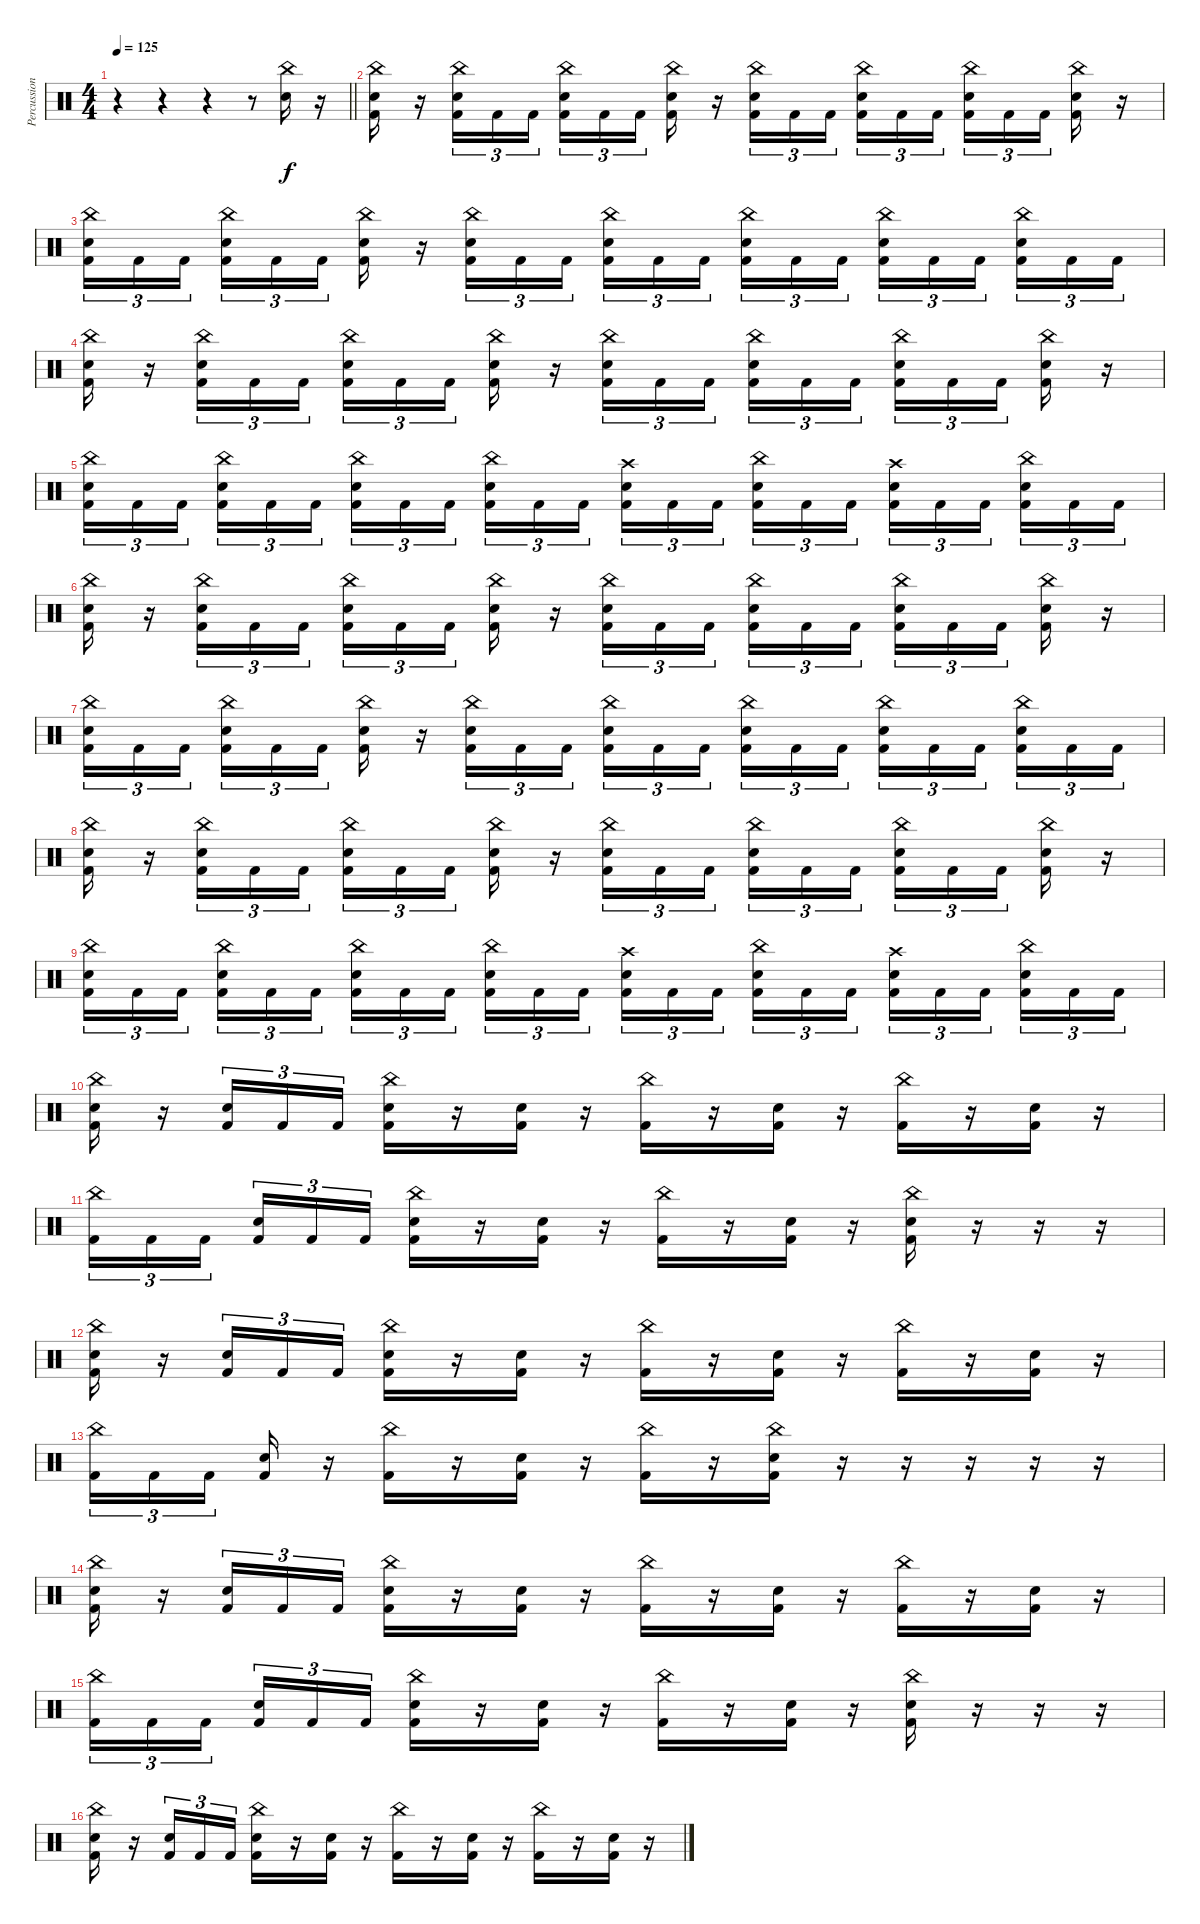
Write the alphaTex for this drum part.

\track ("Percussion" "Percussion") {instrument percussion}
\staff {score}
\articulation defaults
\ts (4 4)
\tempo 125
\clef neutral
\barLineRight lightlight
\ks c
r.4{dy f} r.4 r.4 r.8 ("China (hit)" "Electric Snare (hit)").16 r.16 |
\section ("" "")
("China (hit)" "Electric Snare (hit)" "Kick (hit) 2").16 r.16 ("China (hit)" "Electric Snare (hit)" "Kick (hit) 2").16{tu (3 2)} "Kick (hit) 2".16{tu (3 2)} "Kick (hit) 2".16{tu (3 2)} ("China (hit)" "Electric Snare (hit)" "Kick (hit) 2").16{tu (3 2)} "Kick (hit) 2".16{tu (3 2)} "Kick (hit) 2".16{tu (3 2) beam splitsecondary} ("China (hit)" "Electric Snare (hit)" "Kick (hit) 2").16 r.16 ("China (hit)" "Electric Snare (hit)" "Kick (hit) 2").16{tu (3 2)} "Kick (hit) 2".16{tu (3 2)} "Kick (hit) 2".16{tu (3 2) beam splitsecondary} ("China (hit)" "Electric Snare (hit)" "Kick (hit) 2").16{tu (3 2)} "Kick (hit) 2".16{tu (3 2)} "Kick (hit) 2".16{tu (3 2)} ("China (hit)" "Electric Snare (hit)" "Kick (hit) 2").16{tu (3 2)} "Kick (hit) 2".16{tu (3 2)} "Kick (hit) 2".16{tu (3 2) beam splitsecondary} ("China (hit)" "Electric Snare (hit)" "Kick (hit) 2").16 r.16 |
("China (hit)" "Electric Snare (hit)" "Kick (hit) 2").16{tu (3 2)} "Kick (hit) 2".16{tu (3 2)} "Kick (hit) 2".16{tu (3 2) beam splitsecondary} ("China (hit)" "Electric Snare (hit)" "Kick (hit) 2").16{tu (3 2)} "Kick (hit) 2".16{tu (3 2)} "Kick (hit) 2".16{tu (3 2)} ("China (hit)" "Electric Snare (hit)" "Kick (hit) 2").16 r.16 ("China (hit)" "Electric Snare (hit)" "Kick (hit) 2").16{tu (3 2)} "Kick (hit) 2".16{tu (3 2)} "Kick (hit) 2".16{tu (3 2)} ("China (hit)" "Electric Snare (hit)" "Kick (hit) 2").16{tu (3 2)} "Kick (hit) 2".16{tu (3 2)} "Kick (hit) 2".16{tu (3 2) beam splitsecondary} ("China (hit)" "Electric Snare (hit)" "Kick (hit) 2").16{tu (3 2)} "Kick (hit) 2".16{tu (3 2)} "Kick (hit) 2".16{tu (3 2)} ("China (hit)" "Electric Snare (hit)" "Kick (hit) 2").16{tu (3 2)} "Kick (hit) 2".16{tu (3 2)} "Kick (hit) 2".16{tu (3 2) beam splitsecondary} ("China (hit)" "Electric Snare (hit)" "Kick (hit) 2").16{tu (3 2)} "Kick (hit) 2".16{tu (3 2)} "Kick (hit) 2".16{tu (3 2)} |
("China (hit)" "Electric Snare (hit)" "Kick (hit) 2").16 r.16 ("China (hit)" "Electric Snare (hit)" "Kick (hit) 2").16{tu (3 2)} "Kick (hit) 2".16{tu (3 2)} "Kick (hit) 2".16{tu (3 2)} ("China (hit)" "Electric Snare (hit)" "Kick (hit) 2").16{tu (3 2)} "Kick (hit) 2".16{tu (3 2)} "Kick (hit) 2".16{tu (3 2) beam splitsecondary} ("China (hit)" "Electric Snare (hit)" "Kick (hit) 2").16 r.16 ("China (hit)" "Electric Snare (hit)" "Kick (hit) 2").16{tu (3 2)} "Kick (hit) 2".16{tu (3 2)} "Kick (hit) 2".16{tu (3 2) beam splitsecondary} ("China (hit)" "Electric Snare (hit)" "Kick (hit) 2").16{tu (3 2)} "Kick (hit) 2".16{tu (3 2)} "Kick (hit) 2".16{tu (3 2)} ("China (hit)" "Electric Snare (hit)" "Kick (hit) 2").16{tu (3 2)} "Kick (hit) 2".16{tu (3 2)} "Kick (hit) 2".16{tu (3 2) beam splitsecondary} ("China (hit)" "Electric Snare (hit)" "Kick (hit) 2").16 r.16 |
("China (hit)" "Electric Snare (hit)" "Kick (hit) 2").16{tu (3 2)} "Kick (hit) 2".16{tu (3 2)} "Kick (hit) 2".16{tu (3 2) beam splitsecondary} ("China (hit)" "Electric Snare (hit)" "Kick (hit) 2").16{tu (3 2)} "Kick (hit) 2".16{tu (3 2)} "Kick (hit) 2".16{tu (3 2)} ("China (hit)" "Electric Snare (hit)" "Kick (hit) 2").16{tu (3 2)} "Kick (hit) 2".16{tu (3 2)} "Kick (hit) 2".16{tu (3 2) beam splitsecondary} ("China (hit)" "Electric Snare (hit)" "Kick (hit) 2").16{tu (3 2)} "Kick (hit) 2".16{tu (3 2)} "Kick (hit) 2".16{tu (3 2)} ("Crash high (hit)" "Electric Snare (hit)" "Kick (hit) 2").16{tu (3 2)} "Kick (hit) 2".16{tu (3 2)} "Kick (hit) 2".16{tu (3 2) beam splitsecondary} ("China (hit)" "Electric Snare (hit)" "Kick (hit) 2").16{tu (3 2)} "Kick (hit) 2".16{tu (3 2)} "Kick (hit) 2".16{tu (3 2)} ("Crash high (hit)" "Electric Snare (hit)" "Kick (hit) 2").16{tu (3 2)} "Kick (hit) 2".16{tu (3 2)} "Kick (hit) 2".16{tu (3 2) beam splitsecondary} ("China (hit)" "Electric Snare (hit)" "Kick (hit) 2").16{tu (3 2)} "Kick (hit) 2".16{tu (3 2)} "Kick (hit) 2".16{tu (3 2)} |
("China (hit)" "Electric Snare (hit)" "Kick (hit) 2").16 r.16 ("China (hit)" "Electric Snare (hit)" "Kick (hit) 2").16{tu (3 2)} "Kick (hit) 2".16{tu (3 2)} "Kick (hit) 2".16{tu (3 2)} ("China (hit)" "Electric Snare (hit)" "Kick (hit) 2").16{tu (3 2)} "Kick (hit) 2".16{tu (3 2)} "Kick (hit) 2".16{tu (3 2) beam splitsecondary} ("China (hit)" "Electric Snare (hit)" "Kick (hit) 2").16 r.16 ("China (hit)" "Electric Snare (hit)" "Kick (hit) 2").16{tu (3 2)} "Kick (hit) 2".16{tu (3 2)} "Kick (hit) 2".16{tu (3 2) beam splitsecondary} ("China (hit)" "Electric Snare (hit)" "Kick (hit) 2").16{tu (3 2)} "Kick (hit) 2".16{tu (3 2)} "Kick (hit) 2".16{tu (3 2)} ("China (hit)" "Electric Snare (hit)" "Kick (hit) 2").16{tu (3 2)} "Kick (hit) 2".16{tu (3 2)} "Kick (hit) 2".16{tu (3 2) beam splitsecondary} ("China (hit)" "Electric Snare (hit)" "Kick (hit) 2").16 r.16 |
("China (hit)" "Electric Snare (hit)" "Kick (hit) 2").16{tu (3 2)} "Kick (hit) 2".16{tu (3 2)} "Kick (hit) 2".16{tu (3 2) beam splitsecondary} ("China (hit)" "Electric Snare (hit)" "Kick (hit) 2").16{tu (3 2)} "Kick (hit) 2".16{tu (3 2)} "Kick (hit) 2".16{tu (3 2)} ("China (hit)" "Electric Snare (hit)" "Kick (hit) 2").16 r.16 ("China (hit)" "Electric Snare (hit)" "Kick (hit) 2").16{tu (3 2)} "Kick (hit) 2".16{tu (3 2)} "Kick (hit) 2".16{tu (3 2)} ("China (hit)" "Electric Snare (hit)" "Kick (hit) 2").16{tu (3 2)} "Kick (hit) 2".16{tu (3 2)} "Kick (hit) 2".16{tu (3 2) beam splitsecondary} ("China (hit)" "Electric Snare (hit)" "Kick (hit) 2").16{tu (3 2)} "Kick (hit) 2".16{tu (3 2)} "Kick (hit) 2".16{tu (3 2)} ("China (hit)" "Electric Snare (hit)" "Kick (hit) 2").16{tu (3 2)} "Kick (hit) 2".16{tu (3 2)} "Kick (hit) 2".16{tu (3 2) beam splitsecondary} ("China (hit)" "Electric Snare (hit)" "Kick (hit) 2").16{tu (3 2)} "Kick (hit) 2".16{tu (3 2)} "Kick (hit) 2".16{tu (3 2)} |
("China (hit)" "Electric Snare (hit)" "Kick (hit) 2").16 r.16 ("China (hit)" "Electric Snare (hit)" "Kick (hit) 2").16{tu (3 2)} "Kick (hit) 2".16{tu (3 2)} "Kick (hit) 2".16{tu (3 2)} ("China (hit)" "Electric Snare (hit)" "Kick (hit) 2").16{tu (3 2)} "Kick (hit) 2".16{tu (3 2)} "Kick (hit) 2".16{tu (3 2) beam splitsecondary} ("China (hit)" "Electric Snare (hit)" "Kick (hit) 2").16 r.16 ("China (hit)" "Electric Snare (hit)" "Kick (hit) 2").16{tu (3 2)} "Kick (hit) 2".16{tu (3 2)} "Kick (hit) 2".16{tu (3 2) beam splitsecondary} ("China (hit)" "Electric Snare (hit)" "Kick (hit) 2").16{tu (3 2)} "Kick (hit) 2".16{tu (3 2)} "Kick (hit) 2".16{tu (3 2)} ("China (hit)" "Electric Snare (hit)" "Kick (hit) 2").16{tu (3 2)} "Kick (hit) 2".16{tu (3 2)} "Kick (hit) 2".16{tu (3 2) beam splitsecondary} ("China (hit)" "Electric Snare (hit)" "Kick (hit) 2").16 r.16 |
("China (hit)" "Electric Snare (hit)" "Kick (hit) 2").16{tu (3 2)} "Kick (hit) 2".16{tu (3 2)} "Kick (hit) 2".16{tu (3 2) beam splitsecondary} ("China (hit)" "Electric Snare (hit)" "Kick (hit) 2").16{tu (3 2)} "Kick (hit) 2".16{tu (3 2)} "Kick (hit) 2".16{tu (3 2)} ("China (hit)" "Electric Snare (hit)" "Kick (hit) 2").16{tu (3 2)} "Kick (hit) 2".16{tu (3 2)} "Kick (hit) 2".16{tu (3 2) beam splitsecondary} ("China (hit)" "Electric Snare (hit)" "Kick (hit) 2").16{tu (3 2)} "Kick (hit) 2".16{tu (3 2)} "Kick (hit) 2".16{tu (3 2)} ("Crash high (hit)" "Electric Snare (hit)" "Kick (hit) 2").16{tu (3 2)} "Kick (hit) 2".16{tu (3 2)} "Kick (hit) 2".16{tu (3 2) beam splitsecondary} ("China (hit)" "Electric Snare (hit)" "Kick (hit) 2").16{tu (3 2)} "Kick (hit) 2".16{tu (3 2)} "Kick (hit) 2".16{tu (3 2)} ("Crash high (hit)" "Electric Snare (hit)" "Kick (hit) 2").16{tu (3 2)} "Kick (hit) 2".16{tu (3 2)} "Kick (hit) 2".16{tu (3 2) beam splitsecondary} ("China (hit)" "Electric Snare (hit)" "Kick (hit) 2").16{tu (3 2)} "Kick (hit) 2".16{tu (3 2)} "Kick (hit) 2".16{tu (3 2)} |
("China (hit)" "Electric Snare (hit)" "Kick (hit) 2").16 r.16 ("Electric Snare (hit)" "Kick (hit) 2").16{tu (3 2)} "Kick (hit) 2".16{tu (3 2)} "Kick (hit) 2".16{tu (3 2)} ("China (hit)" "Electric Snare (hit)" "Kick (hit) 2").16 r.16 ("Electric Snare (hit)" "Kick (hit) 2").16 r.16 ("China (hit)" "Kick (hit) 2").16 r.16 ("Electric Snare (hit)" "Kick (hit) 2").16 r.16 ("China (hit)" "Kick (hit) 2").16 r.16 ("Electric Snare (hit)" "Kick (hit) 2").16 r.16 |
("China (hit)" "Kick (hit) 2").16{tu (3 2)} "Kick (hit) 2".16{tu (3 2)} "Kick (hit) 2".16{tu (3 2) beam splitsecondary} ("Electric Snare (hit)" "Kick (hit) 2").16{tu (3 2)} "Kick (hit) 2".16{tu (3 2)} "Kick (hit) 2".16{tu (3 2)} ("China (hit)" "Electric Snare (hit)" "Kick (hit) 2").16 r.16 ("Electric Snare (hit)" "Kick (hit) 2").16 r.16 ("China (hit)" "Kick (hit) 2").16 r.16 ("Electric Snare (hit)" "Kick (hit) 2").16 r.16 ("China (hit)" "Electric Snare (hit)" "Kick (hit) 2").16 r.16 r.16 r.16 |
("China (hit)" "Electric Snare (hit)" "Kick (hit) 2").16 r.16 ("Electric Snare (hit)" "Kick (hit) 2").16{tu (3 2)} "Kick (hit) 2".16{tu (3 2)} "Kick (hit) 2".16{tu (3 2)} ("China (hit)" "Electric Snare (hit)" "Kick (hit) 2").16 r.16 ("Electric Snare (hit)" "Kick (hit) 2").16 r.16 ("China (hit)" "Kick (hit) 2").16 r.16 ("Electric Snare (hit)" "Kick (hit) 2").16 r.16 ("China (hit)" "Kick (hit) 2").16 r.16 ("Electric Snare (hit)" "Kick (hit) 2").16 r.16 |
("China (hit)" "Kick (hit) 2").16{tu (3 2)} "Kick (hit) 2".16{tu (3 2)} "Kick (hit) 2".16{tu (3 2) beam splitsecondary} ("Electric Snare (hit)" "Kick (hit) 2").16 r.16 ("China (hit)" "Kick (hit) 2").16 r.16 ("Electric Snare (hit)" "Kick (hit) 2").16 r.16 ("China (hit)" "Kick (hit) 2").16 r.16 ("China (hit)" "Electric Snare (hit)" "Kick (hit) 2").16 r.16 r.16 r.16 r.16 r.16 |
("China (hit)" "Electric Snare (hit)" "Kick (hit) 2").16 r.16 ("Electric Snare (hit)" "Kick (hit) 2").16{tu (3 2)} "Kick (hit) 2".16{tu (3 2)} "Kick (hit) 2".16{tu (3 2)} ("China (hit)" "Electric Snare (hit)" "Kick (hit) 2").16 r.16 ("Electric Snare (hit)" "Kick (hit) 2").16 r.16 ("China (hit)" "Kick (hit) 2").16 r.16 ("Electric Snare (hit)" "Kick (hit) 2").16 r.16 ("China (hit)" "Kick (hit) 2").16 r.16 ("Electric Snare (hit)" "Kick (hit) 2").16 r.16 |
("China (hit)" "Kick (hit) 2").16{tu (3 2)} "Kick (hit) 2".16{tu (3 2)} "Kick (hit) 2".16{tu (3 2) beam splitsecondary} ("Electric Snare (hit)" "Kick (hit) 2").16{tu (3 2)} "Kick (hit) 2".16{tu (3 2)} "Kick (hit) 2".16{tu (3 2)} ("China (hit)" "Electric Snare (hit)" "Kick (hit) 2").16 r.16 ("Electric Snare (hit)" "Kick (hit) 2").16 r.16 ("China (hit)" "Kick (hit) 2").16 r.16 ("Electric Snare (hit)" "Kick (hit) 2").16 r.16 ("China (hit)" "Electric Snare (hit)" "Kick (hit) 2").16 r.16 r.16 r.16 |
("China (hit)" "Electric Snare (hit)" "Kick (hit) 2").16 r.16 ("Electric Snare (hit)" "Kick (hit) 2").16{tu (3 2)} "Kick (hit) 2".16{tu (3 2)} "Kick (hit) 2".16{tu (3 2)} ("China (hit)" "Electric Snare (hit)" "Kick (hit) 2").16 r.16 ("Electric Snare (hit)" "Kick (hit) 2").16 r.16 ("China (hit)" "Kick (hit) 2").16 r.16 ("Electric Snare (hit)" "Kick (hit) 2").16 r.16 ("China (hit)" "Kick (hit) 2").16 r.16 ("Electric Snare (hit)" "Kick (hit) 2").16 r.16
